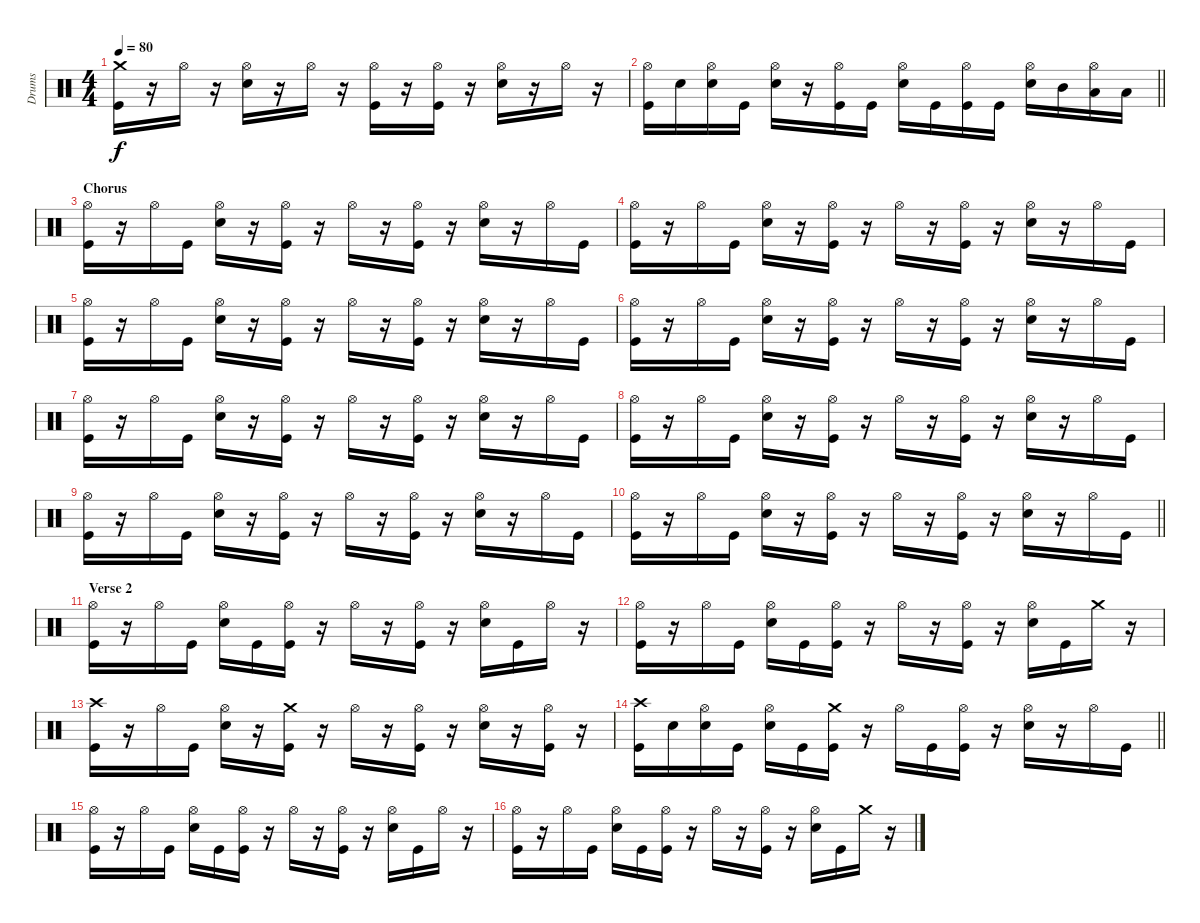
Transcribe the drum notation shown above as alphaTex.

\track ("Drums" "Drums") {instrument percussion}
\staff {score}
\articulation defaults
\ts (4 4)
\tempo 80
\clef neutral
\ks c
("Crash medium (hit)" "Kick (hit)").16{dy f} r.16 "Hi-Hat (open)".16 r.16 ("Hi-Hat (open)" "Electric Snare (hit)").16 r.16 "Hi-Hat (open)".16 r.16 ("Hi-Hat (open)" "Kick (hit)").16 r.16 ("Hi-Hat (open)" "Kick (hit)").16 r.16 ("Hi-Hat (open)" "Electric Snare (hit)").16 r.16 "Hi-Hat (open)".16 r.16 |
\barLineRight lightlight
("Hi-Hat (open)" "Kick (hit)").16 "Electric Snare (hit)".16 ("Hi-Hat (open)" "Electric Snare (hit)").16 "Kick (hit)".16 ("Hi-Hat (open)" "Electric Snare (hit)").16 r.16 ("Hi-Hat (open)" "Kick (hit)").16 "Kick (hit)".16 ("Hi-Hat (open)" "Electric Snare (hit)").16 "Kick (hit)".16 ("Hi-Hat (open)" "Kick (hit)").16 "Kick (hit)".16 ("Hi-Hat (open)" "Electric Snare (hit)").16 "Mid Tom (hit)".16 ("Hi-Hat (open)" "Low Tom (hit)").16 "Low Floor Tom (hit)".16 |
\section ("" "Chorus")
("Hi-Hat (open)" "Kick (hit)").16 r.16 "Hi-Hat (open)".16 "Kick (hit)".16 ("Hi-Hat (open)" "Electric Snare (hit)").16 r.16 ("Hi-Hat (open)" "Kick (hit)").16 r.16 "Hi-Hat (open)".16 r.16 ("Hi-Hat (open)" "Kick (hit)").16 r.16 ("Hi-Hat (open)" "Electric Snare (hit)").16 r.16 "Hi-Hat (open)".16 "Kick (hit)".16 |
("Hi-Hat (open)" "Kick (hit)").16 r.16 "Hi-Hat (open)".16 "Kick (hit)".16 ("Hi-Hat (open)" "Electric Snare (hit)").16 r.16 ("Hi-Hat (open)" "Kick (hit)").16 r.16 "Hi-Hat (open)".16 r.16 ("Hi-Hat (open)" "Kick (hit)").16 r.16 ("Hi-Hat (open)" "Electric Snare (hit)").16 r.16 "Hi-Hat (open)".16 "Kick (hit)".16 |
("Hi-Hat (open)" "Kick (hit)").16 r.16 "Hi-Hat (open)".16 "Kick (hit)".16 ("Hi-Hat (open)" "Electric Snare (hit)").16 r.16 ("Hi-Hat (open)" "Kick (hit)").16 r.16 "Hi-Hat (open)".16 r.16 ("Hi-Hat (open)" "Kick (hit)").16 r.16 ("Hi-Hat (open)" "Electric Snare (hit)").16 r.16 "Hi-Hat (open)".16 "Kick (hit)".16 |
("Hi-Hat (open)" "Kick (hit)").16 r.16 "Hi-Hat (open)".16 "Kick (hit)".16 ("Hi-Hat (open)" "Electric Snare (hit)").16 r.16 ("Hi-Hat (open)" "Kick (hit)").16 r.16 "Hi-Hat (open)".16 r.16 ("Hi-Hat (open)" "Kick (hit)").16 r.16 ("Hi-Hat (open)" "Electric Snare (hit)").16 r.16 "Hi-Hat (open)".16 "Kick (hit)".16 |
("Hi-Hat (open)" "Kick (hit)").16 r.16 "Hi-Hat (open)".16 "Kick (hit)".16 ("Hi-Hat (open)" "Electric Snare (hit)").16 r.16 ("Hi-Hat (open)" "Kick (hit)").16 r.16 "Hi-Hat (open)".16 r.16 ("Hi-Hat (open)" "Kick (hit)").16 r.16 ("Hi-Hat (open)" "Electric Snare (hit)").16 r.16 "Hi-Hat (open)".16 "Kick (hit)".16 |
("Hi-Hat (open)" "Kick (hit)").16 r.16 "Hi-Hat (open)".16 "Kick (hit)".16 ("Hi-Hat (open)" "Electric Snare (hit)").16 r.16 ("Hi-Hat (open)" "Kick (hit)").16 r.16 "Hi-Hat (open)".16 r.16 ("Hi-Hat (open)" "Kick (hit)").16 r.16 ("Hi-Hat (open)" "Electric Snare (hit)").16 r.16 "Hi-Hat (open)".16 "Kick (hit)".16 |
("Hi-Hat (open)" "Kick (hit)").16 r.16 "Hi-Hat (open)".16 "Kick (hit)".16 ("Hi-Hat (open)" "Electric Snare (hit)").16 r.16 ("Hi-Hat (open)" "Kick (hit)").16 r.16 "Hi-Hat (open)".16 r.16 ("Hi-Hat (open)" "Kick (hit)").16 r.16 ("Hi-Hat (open)" "Electric Snare (hit)").16 r.16 "Hi-Hat (open)".16 "Kick (hit)".16 |
\barLineRight lightlight
("Hi-Hat (open)" "Kick (hit)").16 r.16 "Hi-Hat (open)".16 "Kick (hit)".16 ("Hi-Hat (open)" "Electric Snare (hit)").16 r.16 ("Hi-Hat (open)" "Kick (hit)").16 r.16 "Hi-Hat (open)".16 r.16 ("Hi-Hat (open)" "Kick (hit)").16 r.16 ("Hi-Hat (open)" "Electric Snare (hit)").16 r.16 "Hi-Hat (open)".16 "Kick (hit)".16 |
\section ("" "Verse 2")
("Hi-Hat (open)" "Kick (hit)").16 r.16 "Hi-Hat (open)".16 "Kick (hit)".16 ("Hi-Hat (open)" "Electric Snare (hit)").16 "Kick (hit)".16 ("Hi-Hat (open)" "Kick (hit)").16 r.16 "Hi-Hat (open)".16 r.16 ("Hi-Hat (open)" "Kick (hit)").16 r.16 ("Hi-Hat (open)" "Electric Snare (hit)").16 "Kick (hit)".16 "Hi-Hat (open)".16 r.16 |
("Hi-Hat (open)" "Kick (hit)").16 r.16 "Hi-Hat (open)".16 "Kick (hit)".16 ("Hi-Hat (open)" "Electric Snare (hit)").16 "Kick (hit)".16 ("Hi-Hat (open)" "Kick (hit)").16 r.16 "Hi-Hat (open)".16 r.16 ("Hi-Hat (open)" "Kick (hit)").16 r.16 ("Hi-Hat (open)" "Electric Snare (hit)").16 "Kick (hit)".16 "Crash medium (hit)".16 r.16 |
("Crash high (hit)" "Kick (hit)").16 r.16 "Hi-Hat (open)".16 "Kick (hit)".16 ("Hi-Hat (open)" "Electric Snare (hit)").16 r.16 ("Crash medium (hit)" "Kick (hit)").16 r.16 "Hi-Hat (open)".16 r.16 ("Hi-Hat (open)" "Kick (hit)").16 r.16 ("Hi-Hat (open)" "Electric Snare (hit)").16 r.16 ("Hi-Hat (open)" "Kick (hit)").16 r.16 |
\barLineRight lightlight
("Crash high (hit)" "Kick (hit)").16 "Electric Snare (hit)".16 ("Hi-Hat (open)" "Electric Snare (hit)").16 "Kick (hit)".16 ("Hi-Hat (open)" "Electric Snare (hit)").16 "Kick (hit)".16 ("Crash medium (hit)" "Kick (hit)").16 r.16 "Hi-Hat (open)".16 "Kick (hit)".16 ("Hi-Hat (open)" "Kick (hit)").16 r.16 ("Hi-Hat (open)" "Electric Snare (hit)").16 r.16 "Hi-Hat (open)".16 "Kick (hit)".16 |
("Hi-Hat (open)" "Kick (hit)").16 r.16 "Hi-Hat (open)".16 "Kick (hit)".16 ("Hi-Hat (open)" "Electric Snare (hit)").16 "Kick (hit)".16 ("Hi-Hat (open)" "Kick (hit)").16 r.16 "Hi-Hat (open)".16 r.16 ("Hi-Hat (open)" "Kick (hit)").16 r.16 ("Hi-Hat (open)" "Electric Snare (hit)").16 "Kick (hit)".16 "Hi-Hat (open)".16 r.16 |
("Hi-Hat (open)" "Kick (hit)").16 r.16 "Hi-Hat (open)".16 "Kick (hit)".16 ("Hi-Hat (open)" "Electric Snare (hit)").16 "Kick (hit)".16 ("Hi-Hat (open)" "Kick (hit)").16 r.16 "Hi-Hat (open)".16 r.16 ("Hi-Hat (open)" "Kick (hit)").16 r.16 ("Hi-Hat (open)" "Electric Snare (hit)").16 "Kick (hit)".16 "Crash medium (hit)".16 r.16
